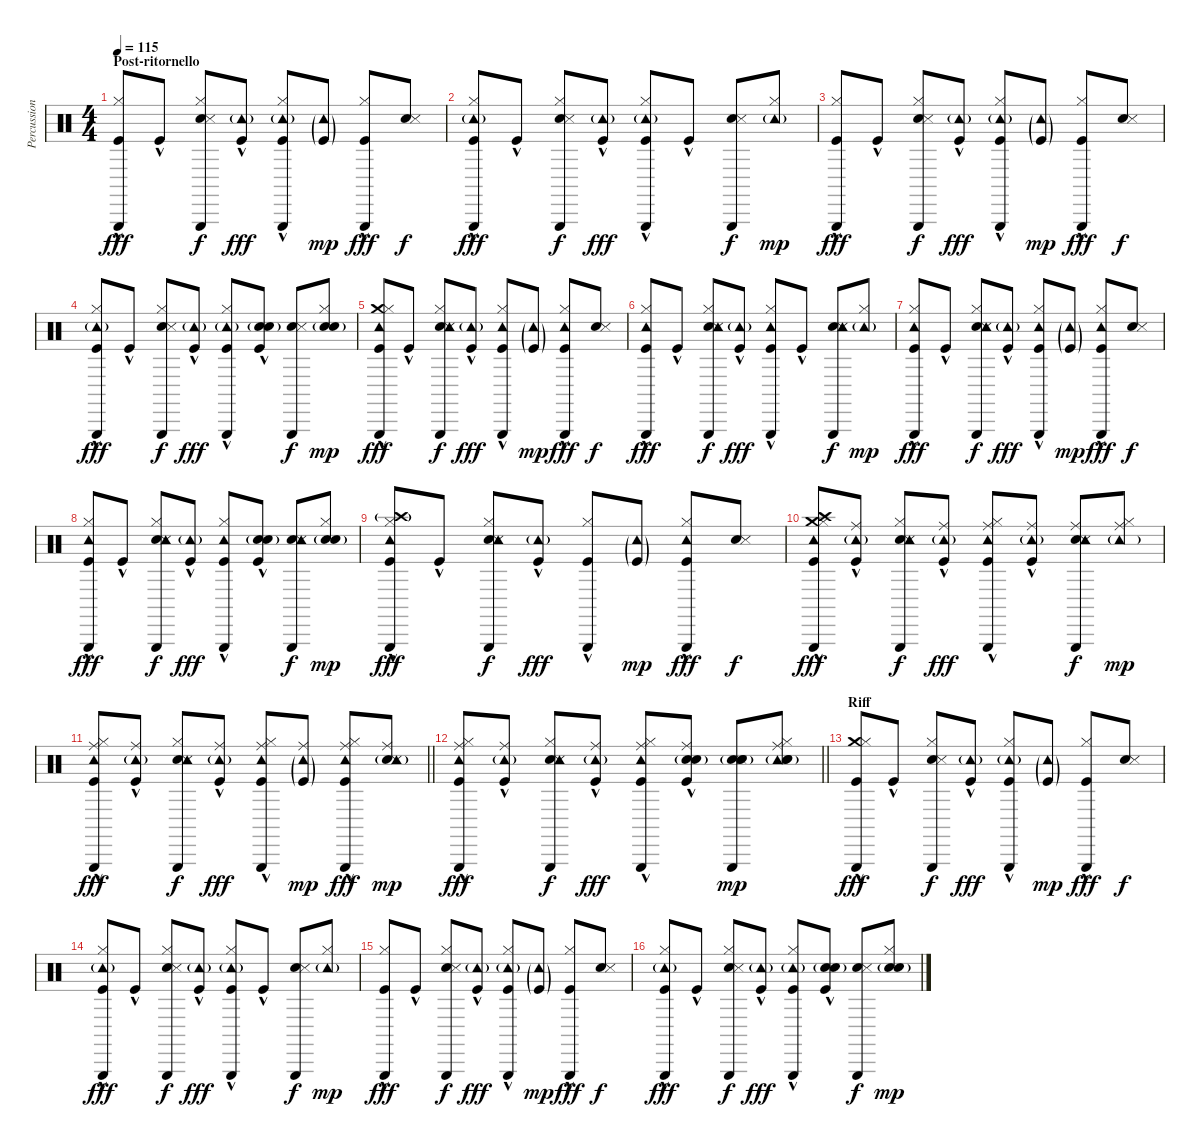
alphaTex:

\track ("Percussion" "Percussion") {instrument percussion}
\staff {score}
\articulation defaults
\ts (4 4)
\section ("" "Post-ritornello")
\tempo 115
\clef neutral
\ks c
("Triangle (hit)" "Hi-Hat (closed)" "Kick (hit)"{hac}).8{dy fff} "Kick (hit)"{hac}.8 ("Hand Clap (hit)" "Snare (side stick) 3" "Hi-Hat (closed)" "Triangle (hit)").8{dy f} ("Tambourine (hit)"{g} "Kick (hit)"{hac}).8{dy fff} ("Triangle (hit)" "Hi-Hat (closed)" "Tambourine (hit)"{g} "Kick (hit)"{hac}).8 ("Tambourine (hit)"{g} "Kick (hit)"{g}).8{dy mp} ("Triangle (hit)" "Hi-Hat (closed)" "Kick (hit)"{hac}).8{dy fff} ("Hand Clap (hit)" "Snare (side stick) 3").8{dy f} |
("Triangle (hit)" "Hi-Hat (closed)" "Tambourine (hit)"{g} "Kick (hit)"{hac}).8{dy fff} "Kick (hit)"{hac}.8 ("Hand Clap (hit)" "Snare (side stick) 3" "Hi-Hat (closed)" "Triangle (hit)").8{dy f} ("Tambourine (hit)"{g} "Kick (hit)"{hac}).8{dy fff} ("Triangle (hit)" "Hi-Hat (closed)" "Tambourine (hit)"{g} "Kick (hit)"{hac}).8 "Kick (hit)"{hac}.8 ("Hand Clap (hit)" "Snare (side stick) 3" "Triangle (hit)").8{dy f} ("Hi-Hat (closed)" "Tambourine (hit)"{g}).8{dy mp} |
("Triangle (hit)" "Hi-Hat (closed)" "Kick (hit)"{hac}).8{dy fff} "Kick (hit)"{hac}.8 ("Hand Clap (hit)" "Snare (side stick) 3" "Hi-Hat (closed)" "Triangle (hit)").8{dy f} ("Tambourine (hit)"{g} "Kick (hit)"{hac}).8{dy fff} ("Triangle (hit)" "Hi-Hat (closed)" "Tambourine (hit)"{g} "Kick (hit)"{hac}).8 ("Tambourine (hit)"{g} "Kick (hit)"{g}).8{dy mp} ("Triangle (hit)" "Hi-Hat (closed)" "Kick (hit)"{hac}).8{dy fff} ("Hand Clap (hit)" "Snare (side stick) 3").8{dy f} |
("Triangle (hit)" "Hi-Hat (closed)" "Tambourine (hit)"{g} "Kick (hit)"{hac}).8{dy fff} "Kick (hit)"{hac}.8 ("Hand Clap (hit)" "Snare (side stick) 3" "Hi-Hat (closed)" "Triangle (hit)").8{dy f} ("Tambourine (hit)"{g} "Kick (hit)"{hac}).8{dy fff} ("Triangle (hit)" "Hi-Hat (closed)" "Tambourine (hit)"{g} "Kick (hit)"{hac}).8 ("Snare (hit) 2" "Electric Snare (hit)"{g} "Kick (hit)"{hac}).8 ("Hand Clap (hit)" "Snare (side stick) 3" "Triangle (hit)").8{dy f} ("Hi-Hat (closed)" "Snare (hit) 2" "Electric Snare (hit)"{g}).8{dy mp} |
("Crash medium (hit)"{hac} "Triangle (hit)" "Hi-Hat (closed)" "Tambourine (hit)" "Kick (hit)"{hac}).8{dy fff} "Kick (hit)"{hac}.8 ("Hand Clap (hit)" "Snare (side stick) 3" "Hi-Hat (closed)" "Tambourine (hit)" "Triangle (hit)").8{dy f} ("Tambourine (hit)"{g} "Kick (hit)"{hac}).8{dy fff} ("Triangle (hit)" "Hi-Hat (closed)" "Tambourine (hit)" "Kick (hit)"{hac}).8 ("Tambourine (hit)"{g} "Kick (hit)"{g}).8{dy mp} ("Triangle (hit)" "Hi-Hat (closed)" "Tambourine (hit)" "Kick (hit)"{hac}).8{dy fff} ("Hand Clap (hit)" "Snare (side stick) 3").8{dy f} |
("Triangle (hit)" "Hi-Hat (closed)" "Tambourine (hit)" "Kick (hit)"{hac}).8{dy fff} "Kick (hit)"{hac}.8 ("Hand Clap (hit)" "Snare (side stick) 3" "Hi-Hat (closed)" "Tambourine (hit)" "Triangle (hit)").8{dy f} ("Tambourine (hit)"{g} "Kick (hit)"{hac}).8{dy fff} ("Triangle (hit)" "Hi-Hat (closed)" "Tambourine (hit)" "Kick (hit)"{hac}).8 "Kick (hit)"{hac}.8 ("Hand Clap (hit)" "Snare (side stick) 3" "Triangle (hit)" "Tambourine (hit)").8{dy f} ("Hi-Hat (closed)" "Tambourine (hit)"{g}).8{dy mp} |
("Triangle (hit)" "Hi-Hat (closed)" "Tambourine (hit)" "Kick (hit)"{hac}).8{dy fff} "Kick (hit)"{hac}.8 ("Hand Clap (hit)" "Snare (side stick) 3" "Hi-Hat (closed)" "Tambourine (hit)" "Triangle (hit)").8{dy f} ("Tambourine (hit)"{g} "Kick (hit)"{hac}).8{dy fff} ("Triangle (hit)" "Hi-Hat (closed)" "Tambourine (hit)" "Kick (hit)"{hac}).8 ("Tambourine (hit)"{g} "Kick (hit)"{g}).8{dy mp} ("Triangle (hit)" "Hi-Hat (closed)" "Tambourine (hit)" "Kick (hit)"{hac}).8{dy fff} ("Hand Clap (hit)" "Snare (side stick) 3").8{dy f} |
("Triangle (hit)" "Hi-Hat (closed)" "Tambourine (hit)" "Kick (hit)"{hac}).8{dy fff} "Kick (hit)"{hac}.8 ("Hand Clap (hit)" "Snare (side stick) 3" "Hi-Hat (closed)" "Tambourine (hit)" "Triangle (hit)").8{dy f} ("Tambourine (hit)"{g} "Kick (hit)"{hac}).8{dy fff} ("Triangle (hit)" "Hi-Hat (closed)" "Tambourine (hit)" "Kick (hit)"{hac}).8 ("Snare (hit) 2" "Electric Snare (hit)"{g} "Kick (hit)"{hac}).8 ("Hand Clap (hit)" "Snare (side stick) 3" "Triangle (hit)" "Tambourine (hit)").8{dy f} ("Hi-Hat (closed)" "Snare (hit) 2" "Electric Snare (hit)"{g}).8{dy mp} |
("Crash high (hit)"{g} "Triangle (hit)" "Hi-Hat (closed)" "Tambourine (hit)" "Kick (hit)"{hac}).8{dy fff} "Kick (hit)"{hac}.8 ("Hand Clap (hit)" "Snare (side stick) 3" "Hi-Hat (closed)" "Tambourine (hit)" "Triangle (hit)").8{dy f} ("Tambourine (hit)"{g} "Kick (hit)"{hac}).8{dy fff} ("Triangle (hit)" "Hi-Hat (closed)" "Kick (hit)"{hac}).8 ("Tambourine (hit)"{g} "Kick (hit)"{g}).8{dy mp} ("Triangle (hit)" "Hi-Hat (closed)" "Tambourine (hit)" "Kick (hit)"{hac}).8{dy fff} ("Hand Clap (hit)" "Snare (side stick) 3").8{dy f} |
("Crash high (hit)" "Crash medium (hit)"{hac} "Hi-Hat (closed)" "Tambourine (hit)" "Triangle (hit)" "Kick (hit)"{hac}).8{dy fff} ("Ride (middle)" "Tambourine (hit)"{g} "Kick (hit)"{hac}).8 ("Hand Clap (hit)" "Snare (side stick) 3" "Hi-Hat (closed)" "Tambourine (hit)" "Triangle (hit)").8{dy f} ("Ride (middle)" "Tambourine (hit)"{g} "Kick (hit)"{hac}).8{dy fff} ("Ride (middle)" "Hi-Hat (closed)" "Tambourine (hit)" "Triangle (hit)" "Kick (hit)"{hac}).8 ("Ride (middle)" "Tambourine (hit)"{g} "Kick (hit)"{hac}).8 ("Hand Clap (hit)" "Snare (side stick) 3" "Ride (middle)" "Tambourine (hit)" "Triangle (hit)").8{dy f} ("Ride (middle)" "Hi-Hat (closed)" "Tambourine (hit)"{g}).8{dy mp} |
\barLineRight lightlight
("Ride (middle)" "Hi-Hat (closed)" "Tambourine (hit)" "Triangle (hit)" "Kick (hit)"{hac}).8{dy fff} ("Ride (middle)" "Tambourine (hit)"{g} "Kick (hit)"{hac}).8 ("Hand Clap (hit)" "Snare (side stick) 3" "Hi-Hat (closed)" "Tambourine (hit)" "Triangle (hit)").8{dy f} ("Ride (middle)" "Tambourine (hit)"{g} "Kick (hit)"{hac}).8{dy fff} ("Ride (middle)" "Hi-Hat (closed)" "Tambourine (hit)" "Triangle (hit)" "Kick (hit)"{hac}).8 ("Ride (middle)" "Tambourine (hit)"{g} "Kick (hit)"{g}).8{dy mp} ("Ride (middle)" "Hi-Hat (closed)" "Tambourine (hit)" "Triangle (hit)" "Kick (hit)"{hac}).8{dy fff} ("Hand Clap (hit)" "Snare (side stick) 3" "Ride (middle)" "Tambourine (hit)"{g}).8{dy mp} |
\barLineRight lightlight
("Ride (middle)" "Hi-Hat (closed)" "Tambourine (hit)" "Triangle (hit)" "Kick (hit)"{hac}).8{dy fff} ("Ride (middle)" "Tambourine (hit)"{g} "Kick (hit)"{hac}).8 ("Hand Clap (hit)" "Snare (side stick) 3" "Hi-Hat (closed)" "Tambourine (hit)" "Triangle (hit)").8{dy f} ("Ride (middle)" "Tambourine (hit)"{g} "Kick (hit)"{hac}).8{dy fff} ("Ride (middle)" "Hi-Hat (closed)" "Tambourine (hit)" "Triangle (hit)" "Kick (hit)"{hac}).8 ("Ride (middle)" "Snare (hit) 2" "Electric Snare (hit)"{g} "Kick (hit)"{hac}).8 ("Hand Clap (hit)" "Snare (side stick) 3" "Triangle (hit)" "Snare (hit) 2" "Electric Snare (hit)"{g}).8{dy mp} ("Ride (middle)" "Tambourine (hit)" "Hi-Hat (closed)" "Snare (hit) 2" "Electric Snare (hit)"{g}).8 |
\section ("" "Riff")
("Triangle (hit)" "Crash medium (hit)" "Hi-Hat (closed)" "Kick (hit)"{hac}).8{dy fff} "Kick (hit)"{hac}.8 ("Hand Clap (hit)" "Snare (side stick) 3" "Hi-Hat (closed)" "Triangle (hit)").8{dy f} ("Tambourine (hit)"{g} "Kick (hit)"{hac}).8{dy fff} ("Triangle (hit)" "Hi-Hat (closed)" "Tambourine (hit)"{g} "Kick (hit)"{hac}).8 ("Tambourine (hit)"{g} "Kick (hit)"{g}).8{dy mp} ("Triangle (hit)" "Hi-Hat (closed)" "Kick (hit)"{hac}).8{dy fff} ("Hand Clap (hit)" "Snare (side stick) 3").8{dy f} |
("Triangle (hit)" "Hi-Hat (closed)" "Tambourine (hit)"{g} "Kick (hit)"{hac}).8{dy fff} "Kick (hit)"{hac}.8 ("Hand Clap (hit)" "Snare (side stick) 3" "Hi-Hat (closed)" "Triangle (hit)").8{dy f} ("Tambourine (hit)"{g} "Kick (hit)"{hac}).8{dy fff} ("Triangle (hit)" "Hi-Hat (closed)" "Tambourine (hit)"{g} "Kick (hit)"{hac}).8 "Kick (hit)"{hac}.8 ("Hand Clap (hit)" "Snare (side stick) 3" "Triangle (hit)").8{dy f} ("Hi-Hat (closed)" "Tambourine (hit)"{g}).8{dy mp} |
("Triangle (hit)" "Hi-Hat (closed)" "Kick (hit)"{hac}).8{dy fff} "Kick (hit)"{hac}.8 ("Hand Clap (hit)" "Snare (side stick) 3" "Hi-Hat (closed)" "Triangle (hit)").8{dy f} ("Tambourine (hit)"{g} "Kick (hit)"{hac}).8{dy fff} ("Triangle (hit)" "Hi-Hat (closed)" "Tambourine (hit)"{g} "Kick (hit)"{hac}).8 ("Tambourine (hit)"{g} "Kick (hit)"{g}).8{dy mp} ("Triangle (hit)" "Hi-Hat (closed)" "Kick (hit)"{hac}).8{dy fff} ("Hand Clap (hit)" "Snare (side stick) 3").8{dy f} |
("Triangle (hit)" "Hi-Hat (closed)" "Tambourine (hit)"{g} "Kick (hit)"{hac}).8{dy fff} "Kick (hit)"{hac}.8 ("Hand Clap (hit)" "Snare (side stick) 3" "Hi-Hat (closed)" "Triangle (hit)").8{dy f} ("Tambourine (hit)"{g} "Kick (hit)"{hac}).8{dy fff} ("Triangle (hit)" "Hi-Hat (closed)" "Tambourine (hit)"{g} "Kick (hit)"{hac}).8 ("Snare (hit) 2" "Electric Snare (hit)"{g} "Kick (hit)"{hac}).8 ("Hand Clap (hit)" "Snare (side stick) 3" "Triangle (hit)").8{dy f} ("Hi-Hat (closed)" "Snare (hit) 2" "Electric Snare (hit)"{g}).8{dy mp}
